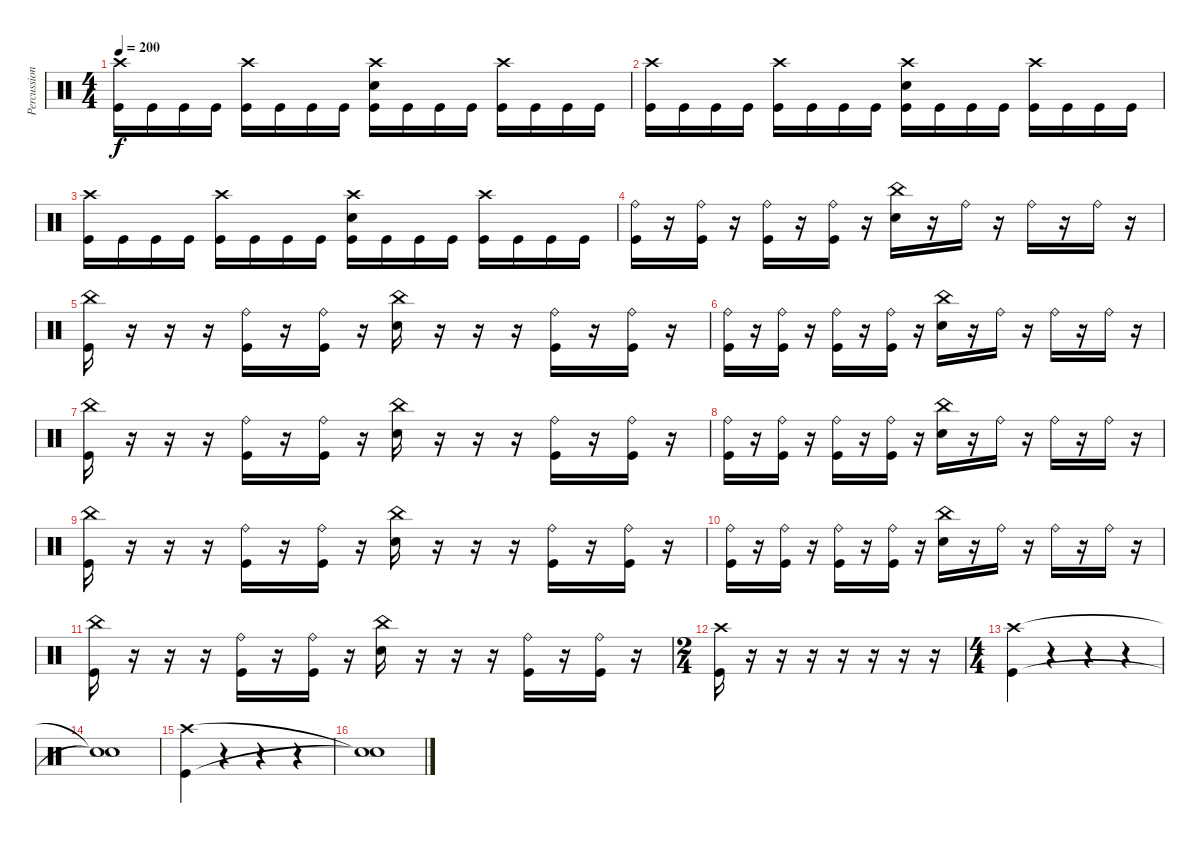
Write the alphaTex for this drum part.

\track ("Percussion" "Percussion") {instrument percussion}
\staff {score}
\articulation defaults
\ts (4 4)
\tempo 200
\clef neutral
\ks c
("Crash high (hit)" "Kick (hit)").16{dy f} "Kick (hit)".16 "Kick (hit)".16 "Kick (hit)".16 ("Crash high (hit)" "Kick (hit)").16 "Kick (hit)".16 "Kick (hit)".16 "Kick (hit)".16 ("Crash high (hit)" "Electric Snare (hit)" "Kick (hit)").16 "Kick (hit)".16 "Kick (hit)".16 "Kick (hit)".16 ("Crash high (hit)" "Kick (hit)").16 "Kick (hit)".16 "Kick (hit)".16 "Kick (hit)".16 |
("Crash high (hit)" "Kick (hit)").16 "Kick (hit)".16 "Kick (hit)".16 "Kick (hit)".16 ("Crash high (hit)" "Kick (hit)").16 "Kick (hit)".16 "Kick (hit)".16 "Kick (hit)".16 ("Crash high (hit)" "Electric Snare (hit)" "Kick (hit)").16 "Kick (hit)".16 "Kick (hit)".16 "Kick (hit)".16 ("Crash high (hit)" "Kick (hit)").16 "Kick (hit)".16 "Kick (hit)".16 "Kick (hit)".16 |
("Crash high (hit)" "Kick (hit)").16 "Kick (hit)".16 "Kick (hit)".16 "Kick (hit)".16 ("Crash high (hit)" "Kick (hit)").16 "Kick (hit)".16 "Kick (hit)".16 "Kick (hit)".16 ("Crash high (hit)" "Electric Snare (hit)" "Kick (hit)").16 "Kick (hit)".16 "Kick (hit)".16 "Kick (hit)".16 ("Crash high (hit)" "Kick (hit)").16 "Kick (hit)".16 "Kick (hit)".16 "Kick (hit)".16 |
("Ride (bell)" "Kick (hit)").16 r.16 ("Ride (bell)" "Kick (hit)").16 r.16 ("Ride (bell)" "Kick (hit)").16 r.16 ("Ride (bell)" "Kick (hit)").16 r.16 ("China (hit)" "Electric Snare (hit)").16 r.16 "Ride (bell)".16 r.16 "Ride (bell)".16 r.16 "Ride (bell)".16 r.16 |
("China (hit)" "Kick (hit)").16 r.16 r.16 r.16 ("Ride (bell)" "Kick (hit)").16 r.16 ("Ride (bell)" "Kick (hit)").16 r.16 ("China (hit)" "Electric Snare (hit)").16 r.16 r.16 r.16 ("Ride (bell)" "Kick (hit)").16 r.16 ("Ride (bell)" "Kick (hit)").16 r.16 |
("Ride (bell)" "Kick (hit)").16 r.16 ("Ride (bell)" "Kick (hit)").16 r.16 ("Ride (bell)" "Kick (hit)").16 r.16 ("Ride (bell)" "Kick (hit)").16 r.16 ("China (hit)" "Electric Snare (hit)").16 r.16 "Ride (bell)".16 r.16 "Ride (bell)".16 r.16 "Ride (bell)".16 r.16 |
("China (hit)" "Kick (hit)").16 r.16 r.16 r.16 ("Ride (bell)" "Kick (hit)").16 r.16 ("Ride (bell)" "Kick (hit)").16 r.16 ("China (hit)" "Electric Snare (hit)").16 r.16 r.16 r.16 ("Ride (bell)" "Kick (hit)").16 r.16 ("Ride (bell)" "Kick (hit)").16 r.16 |
("Ride (bell)" "Kick (hit)").16 r.16 ("Ride (bell)" "Kick (hit)").16 r.16 ("Ride (bell)" "Kick (hit)").16 r.16 ("Ride (bell)" "Kick (hit)").16 r.16 ("China (hit)" "Electric Snare (hit)").16 r.16 "Ride (bell)".16 r.16 "Ride (bell)".16 r.16 "Ride (bell)".16 r.16 |
("China (hit)" "Kick (hit)").16 r.16 r.16 r.16 ("Ride (bell)" "Kick (hit)").16 r.16 ("Ride (bell)" "Kick (hit)").16 r.16 ("China (hit)" "Electric Snare (hit)").16 r.16 r.16 r.16 ("Ride (bell)" "Kick (hit)").16 r.16 ("Ride (bell)" "Kick (hit)").16 r.16 |
("Ride (bell)" "Kick (hit)").16 r.16 ("Ride (bell)" "Kick (hit)").16 r.16 ("Ride (bell)" "Kick (hit)").16 r.16 ("Ride (bell)" "Kick (hit)").16 r.16 ("China (hit)" "Electric Snare (hit)").16 r.16 "Ride (bell)".16 r.16 "Ride (bell)".16 r.16 "Ride (bell)".16 r.16 |
("China (hit)" "Kick (hit)").16 r.16 r.16 r.16 ("Ride (bell)" "Kick (hit)").16 r.16 ("Ride (bell)" "Kick (hit)").16 r.16 ("China (hit)" "Electric Snare (hit)").16 r.16 r.16 r.16 ("Ride (bell)" "Kick (hit)").16 r.16 ("Ride (bell)" "Kick (hit)").16 r.16 |
\ts (2 4)
("Crash high (hit)" "Kick (hit)").16 r.16 r.16 r.16 r.16 r.16 r.16 r.16 |
\ts (4 4)
("Crash high (hit)" "Kick (hit)").4 r.4 r.4 r.4 |
("Snare (hit)"{t} "Snare (hit)"{t}).1 |
("Kick (hit)" "Crash high (hit)").4 r.4 r.4 r.4 |
("Snare (hit)"{t} "Snare (hit)"{t}).1
